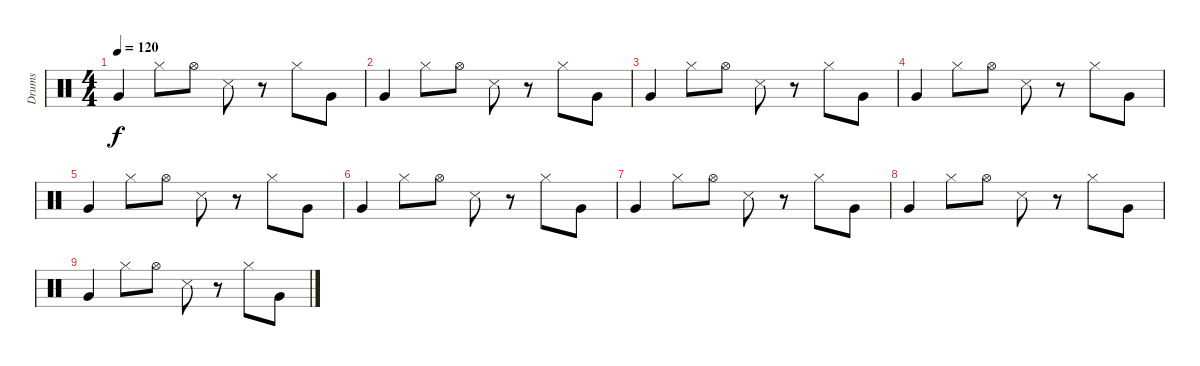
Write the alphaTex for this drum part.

\track ("Drums" "Drums") {instrument percussion}
\staff {score}
\articulation defaults
\ts (4 4)
\tempo 120
\clef neutral
\ks c "Very Low Tom (hit)".4{dy f} "Hi-Hat (closed)".8 "Hi-Hat (open)".8 "Snare (side stick) 3".8
r.8 "Hi-Hat (closed)".8 "Very Low Tom (hit)".8 |
"Very Low Tom (hit)".4 "Hi-Hat (closed)".8 "Hi-Hat (open)".8 "Snare (side stick) 3".8 r.8 "Hi-Hat (closed)".8 "Very Low Tom (hit)".8 |
"Very Low Tom (hit)".4 "Hi-Hat (closed)".8 "Hi-Hat (open)".8 "Snare (side stick) 3".8 r.8 "Hi-Hat (closed)".8 "Very Low Tom (hit)".8 |
"Very Low Tom (hit)".4 "Hi-Hat (closed)".8 "Hi-Hat (open)".8 "Snare (side stick) 3".8 r.8 "Hi-Hat (closed)".8 "Very Low Tom (hit)".8 |
"Very Low Tom (hit)".4 "Hi-Hat (closed)".8 "Hi-Hat (open)".8 "Snare (side stick) 3".8 r.8 "Hi-Hat (closed)".8 "Very Low Tom (hit)".8 |
"Very Low Tom (hit)".4 "Hi-Hat (closed)".8 "Hi-Hat (open)".8 "Snare (side stick) 3".8 r.8 "Hi-Hat (closed)".8 "Very Low Tom (hit)".8 |
"Very Low Tom (hit)".4 "Hi-Hat (closed)".8 "Hi-Hat (open)".8 "Snare (side stick) 3".8 r.8 "Hi-Hat (closed)".8 "Very Low Tom (hit)".8 |
"Very Low Tom (hit)".4 "Hi-Hat (closed)".8 "Hi-Hat (open)".8 "Snare (side stick) 3".8 r.8 "Hi-Hat (closed)".8 "Very Low Tom (hit)".8 |
"Very Low Tom (hit)".4 "Hi-Hat (closed)".8 "Hi-Hat (open)".8 "Snare (side stick) 3".8 r.8 "Hi-Hat (closed)".8 "Very Low Tom (hit)".8
